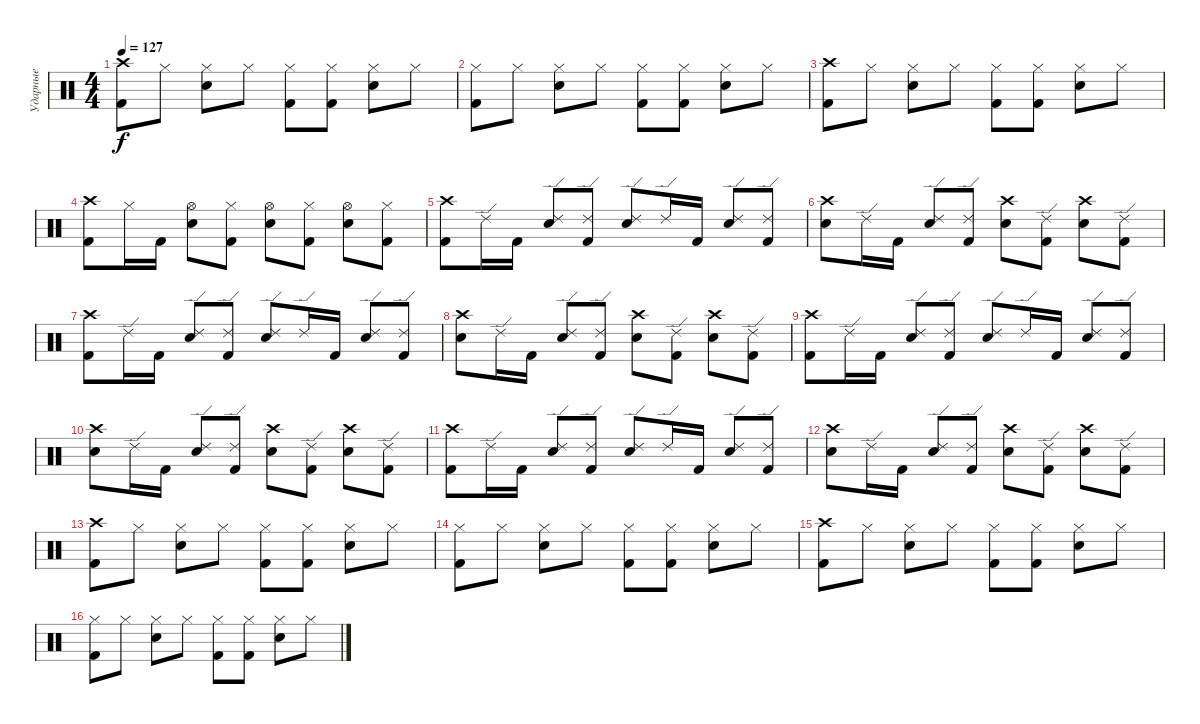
\track ("Ударные" "Ударные") {instrument percussion}
\staff {score}
\articulation defaults
\ts (4 4)
\tempo 127
\clef neutral
\ks c
("Kick (hit) 2" "Crash high (hit)").8{dy f} "Hi-Hat (closed)".8 ("Electric Snare (hit)" "Hi-Hat (closed)").8 "Hi-Hat (closed)".8 ("Kick (hit) 2" "Hi-Hat (closed)").8 ("Kick (hit) 2" "Hi-Hat (closed)").8 ("Electric Snare (hit)" "Hi-Hat (closed)").8 "Hi-Hat (closed)".8 |
("Kick (hit) 2" "Hi-Hat (closed)").8 "Hi-Hat (closed)".8 ("Electric Snare (hit)" "Hi-Hat (closed)").8 "Hi-Hat (closed)".8 ("Kick (hit) 2" "Hi-Hat (closed)").8 ("Kick (hit) 2" "Hi-Hat (closed)").8 ("Electric Snare (hit)" "Hi-Hat (closed)").8 "Hi-Hat (closed)".8 |
("Kick (hit) 2" "Crash high (hit)").8 "Hi-Hat (closed)".8 ("Electric Snare (hit)" "Hi-Hat (closed)").8 "Hi-Hat (closed)".8 ("Kick (hit) 2" "Hi-Hat (closed)").8 ("Kick (hit) 2" "Hi-Hat (closed)").8 ("Electric Snare (hit)" "Hi-Hat (closed)").8 "Hi-Hat (closed)".8 |
("Kick (hit) 2" "Crash high (hit)").8 "Hi-Hat (closed)".16 "Kick (hit) 2".16 ("Electric Snare (hit)" "Hi-Hat (open)").8 ("Kick (hit) 2" "Hi-Hat (closed)").8 ("Electric Snare (hit)" "Hi-Hat (open)").8 ("Kick (hit) 2" "Hi-Hat (closed)").8 ("Electric Snare (hit)" "Hi-Hat (open)").8 ("Kick (hit) 2" "Hi-Hat (closed)").8 |
("Kick (hit) 2" "Crash high (hit)").8 "Ride (edge) 2".16 "Kick (hit) 2".16 ("Electric Snare (hit)" "Ride (edge) 2").8 ("Kick (hit) 2" "Ride (edge) 2").8 ("Electric Snare (hit)" "Ride (edge) 2").8 "Ride (edge) 2".16 "Kick (hit) 2".16 ("Electric Snare (hit)" "Ride (edge) 2").8 ("Kick (hit) 2" "Ride (edge) 2").8 |
("Electric Snare (hit)" "Crash high (hit)").8 "Ride (edge) 2".16 "Kick (hit) 2".16 ("Electric Snare (hit)" "Ride (edge) 2").8 ("Kick (hit) 2" "Ride (edge) 2").8 ("Electric Snare (hit)" "Crash high (hit)").8 ("Kick (hit) 2" "Ride (edge) 2").8 ("Electric Snare (hit)" "Crash high (hit)").8 ("Kick (hit) 2" "Ride (edge) 2").8 |
("Kick (hit) 2" "Crash high (hit)").8 "Ride (edge) 2".16 "Kick (hit) 2".16 ("Electric Snare (hit)" "Ride (edge) 2").8 ("Kick (hit) 2" "Ride (edge) 2").8 ("Electric Snare (hit)" "Ride (edge) 2").8 "Ride (edge) 2".16 "Kick (hit) 2".16 ("Electric Snare (hit)" "Ride (edge) 2").8 ("Kick (hit) 2" "Ride (edge) 2").8 |
("Electric Snare (hit)" "Crash high (hit)").8 "Ride (edge) 2".16 "Kick (hit) 2".16 ("Electric Snare (hit)" "Ride (edge) 2").8 ("Kick (hit) 2" "Ride (edge) 2").8 ("Electric Snare (hit)" "Crash high (hit)").8 ("Kick (hit) 2" "Ride (edge) 2").8 ("Electric Snare (hit)" "Crash high (hit)").8 ("Kick (hit) 2" "Ride (edge) 2").8 |
("Kick (hit) 2" "Crash high (hit)").8 "Ride (edge) 2".16 "Kick (hit) 2".16 ("Electric Snare (hit)" "Ride (edge) 2").8 ("Kick (hit) 2" "Ride (edge) 2").8 ("Electric Snare (hit)" "Ride (edge) 2").8 "Ride (edge) 2".16 "Kick (hit) 2".16 ("Electric Snare (hit)" "Ride (edge) 2").8 ("Kick (hit) 2" "Ride (edge) 2").8 |
("Electric Snare (hit)" "Crash high (hit)").8 "Ride (edge) 2".16 "Kick (hit) 2".16 ("Electric Snare (hit)" "Ride (edge) 2").8 ("Kick (hit) 2" "Ride (edge) 2").8 ("Electric Snare (hit)" "Crash high (hit)").8 ("Kick (hit) 2" "Ride (edge) 2").8 ("Electric Snare (hit)" "Crash high (hit)").8 ("Kick (hit) 2" "Ride (edge) 2").8 |
("Kick (hit) 2" "Crash high (hit)").8 "Ride (edge) 2".16 "Kick (hit) 2".16 ("Electric Snare (hit)" "Ride (edge) 2").8 ("Kick (hit) 2" "Ride (edge) 2").8 ("Electric Snare (hit)" "Ride (edge) 2").8 "Ride (edge) 2".16 "Kick (hit) 2".16 ("Electric Snare (hit)" "Ride (edge) 2").8 ("Kick (hit) 2" "Ride (edge) 2").8 |
("Electric Snare (hit)" "Crash high (hit)").8 "Ride (edge) 2".16 "Kick (hit) 2".16 ("Electric Snare (hit)" "Ride (edge) 2").8 ("Kick (hit) 2" "Ride (edge) 2").8 ("Electric Snare (hit)" "Crash high (hit)").8 ("Kick (hit) 2" "Ride (edge) 2").8 ("Electric Snare (hit)" "Crash high (hit)").8 ("Kick (hit) 2" "Ride (edge) 2").8 |
("Kick (hit) 2" "Crash high (hit)").8 "Hi-Hat (closed)".8 ("Electric Snare (hit)" "Hi-Hat (closed)").8 "Hi-Hat (closed)".8 ("Kick (hit) 2" "Hi-Hat (closed)").8 ("Kick (hit) 2" "Hi-Hat (closed)").8 ("Electric Snare (hit)" "Hi-Hat (closed)").8 "Hi-Hat (closed)".8 |
("Kick (hit) 2" "Hi-Hat (closed)").8 "Hi-Hat (closed)".8 ("Electric Snare (hit)" "Hi-Hat (closed)").8 "Hi-Hat (closed)".8 ("Kick (hit) 2" "Hi-Hat (closed)").8 ("Kick (hit) 2" "Hi-Hat (closed)").8 ("Electric Snare (hit)" "Hi-Hat (closed)").8 "Hi-Hat (closed)".8 |
("Kick (hit) 2" "Crash high (hit)").8 "Hi-Hat (closed)".8 ("Electric Snare (hit)" "Hi-Hat (closed)").8 "Hi-Hat (closed)".8 ("Kick (hit) 2" "Hi-Hat (closed)").8 ("Kick (hit) 2" "Hi-Hat (closed)").8 ("Electric Snare (hit)" "Hi-Hat (closed)").8 "Hi-Hat (closed)".8 |
("Kick (hit) 2" "Hi-Hat (closed)").8 "Hi-Hat (closed)".8 ("Electric Snare (hit)" "Hi-Hat (closed)").8 "Hi-Hat (closed)".8 ("Kick (hit) 2" "Hi-Hat (closed)").8 ("Kick (hit) 2" "Hi-Hat (closed)").8 ("Electric Snare (hit)" "Hi-Hat (closed)").8 "Hi-Hat (closed)".8
